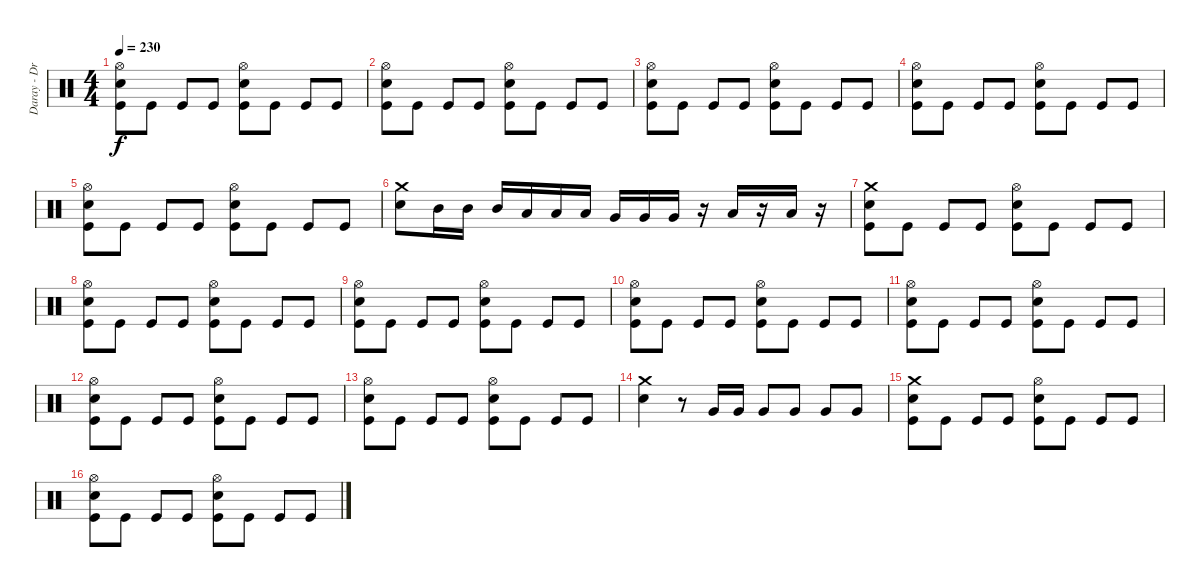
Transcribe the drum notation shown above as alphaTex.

\track ("Daray - Drums" "Daray - Dr") {instrument percussion}
\staff {score}
\articulation defaults
\ts (4 4)
\tempo 230
\clef neutral
\ks c
("Hi-Hat (open)" "Electric Snare (hit)" "Kick (hit)").8{dy f} "Kick (hit)".8 "Kick (hit)".8 "Kick (hit)".8 ("Hi-Hat (open)" "Electric Snare (hit)" "Kick (hit)").8 "Kick (hit)".8 "Kick (hit)".8 "Kick (hit)".8 |
("Hi-Hat (open)" "Electric Snare (hit)" "Kick (hit)").8 "Kick (hit)".8 "Kick (hit)".8 "Kick (hit)".8 ("Hi-Hat (open)" "Electric Snare (hit)" "Kick (hit)").8 "Kick (hit)".8 "Kick (hit)".8 "Kick (hit)".8 |
("Hi-Hat (open)" "Electric Snare (hit)" "Kick (hit)").8 "Kick (hit)".8 "Kick (hit)".8 "Kick (hit)".8 ("Hi-Hat (open)" "Electric Snare (hit)" "Kick (hit)").8 "Kick (hit)".8 "Kick (hit)".8 "Kick (hit)".8 |
("Hi-Hat (open)" "Electric Snare (hit)" "Kick (hit)").8 "Kick (hit)".8 "Kick (hit)".8 "Kick (hit)".8 ("Hi-Hat (open)" "Electric Snare (hit)" "Kick (hit)").8 "Kick (hit)".8 "Kick (hit)".8 "Kick (hit)".8 |
("Hi-Hat (open)" "Electric Snare (hit)" "Kick (hit)").8 "Kick (hit)".8 "Kick (hit)".8 "Kick (hit)".8 ("Hi-Hat (open)" "Electric Snare (hit)" "Kick (hit)").8 "Kick (hit)".8 "Kick (hit)".8 "Kick (hit)".8 |
("Crash medium (hit)" "Electric Snare (hit)").8 "Mid Tom (hit)".16 "Mid Tom (hit)".16 "Mid Tom (hit)".16 "Low Tom (hit)".16 "Low Tom (hit)".16 "Low Tom (hit)".16 "Very Low Tom (hit)".16 "Very Low Tom (hit)".16 "Very Low Tom (hit)".16 r.16 "Low Floor Tom (hit)".16 r.16 "Low Floor Tom (hit)".16 r.16 |
("Crash medium (hit)" "Electric Snare (hit)" "Kick (hit)").8 "Kick (hit)".8 "Kick (hit)".8 "Kick (hit)".8 ("Hi-Hat (open)" "Electric Snare (hit)" "Kick (hit)").8 "Kick (hit)".8 "Kick (hit)".8 "Kick (hit)".8 |
("Hi-Hat (open)" "Electric Snare (hit)" "Kick (hit)").8 "Kick (hit)".8 "Kick (hit)".8 "Kick (hit)".8 ("Hi-Hat (open)" "Electric Snare (hit)" "Kick (hit)").8 "Kick (hit)".8 "Kick (hit)".8 "Kick (hit)".8 |
("Hi-Hat (open)" "Electric Snare (hit)" "Kick (hit)").8 "Kick (hit)".8 "Kick (hit)".8 "Kick (hit)".8 ("Hi-Hat (open)" "Electric Snare (hit)" "Kick (hit)").8 "Kick (hit)".8 "Kick (hit)".8 "Kick (hit)".8 |
("Hi-Hat (open)" "Electric Snare (hit)" "Kick (hit)").8 "Kick (hit)".8 "Kick (hit)".8 "Kick (hit)".8 ("Hi-Hat (open)" "Electric Snare (hit)" "Kick (hit)").8 "Kick (hit)".8 "Kick (hit)".8 "Kick (hit)".8 |
("Hi-Hat (open)" "Electric Snare (hit)" "Kick (hit)").8 "Kick (hit)".8 "Kick (hit)".8 "Kick (hit)".8 ("Hi-Hat (open)" "Electric Snare (hit)" "Kick (hit)").8 "Kick (hit)".8 "Kick (hit)".8 "Kick (hit)".8 |
("Hi-Hat (open)" "Electric Snare (hit)" "Kick (hit)").8 "Kick (hit)".8 "Kick (hit)".8 "Kick (hit)".8 ("Hi-Hat (open)" "Electric Snare (hit)" "Kick (hit)").8 "Kick (hit)".8 "Kick (hit)".8 "Kick (hit)".8 |
("Hi-Hat (open)" "Electric Snare (hit)" "Kick (hit)").8 "Kick (hit)".8 "Kick (hit)".8 "Kick (hit)".8 ("Hi-Hat (open)" "Electric Snare (hit)" "Kick (hit)").8 "Kick (hit)".8 "Kick (hit)".8 "Kick (hit)".8 |
("Crash medium (hit)" "Electric Snare (hit)").4 r.8 "Very Low Tom (hit)".16 "Very Low Tom (hit)".16 "Very Low Tom (hit)".8 "Very Low Tom (hit)".8 "Very Low Tom (hit)".8 "Very Low Tom (hit)".8 |
("Crash medium (hit)" "Electric Snare (hit)" "Kick (hit)").8 "Kick (hit)".8 "Kick (hit)".8 "Kick (hit)".8 ("Hi-Hat (open)" "Electric Snare (hit)" "Kick (hit)").8 "Kick (hit)".8 "Kick (hit)".8 "Kick (hit)".8 |
("Hi-Hat (open)" "Electric Snare (hit)" "Kick (hit)").8 "Kick (hit)".8 "Kick (hit)".8 "Kick (hit)".8 ("Hi-Hat (open)" "Electric Snare (hit)" "Kick (hit)").8 "Kick (hit)".8 "Kick (hit)".8 "Kick (hit)".8
